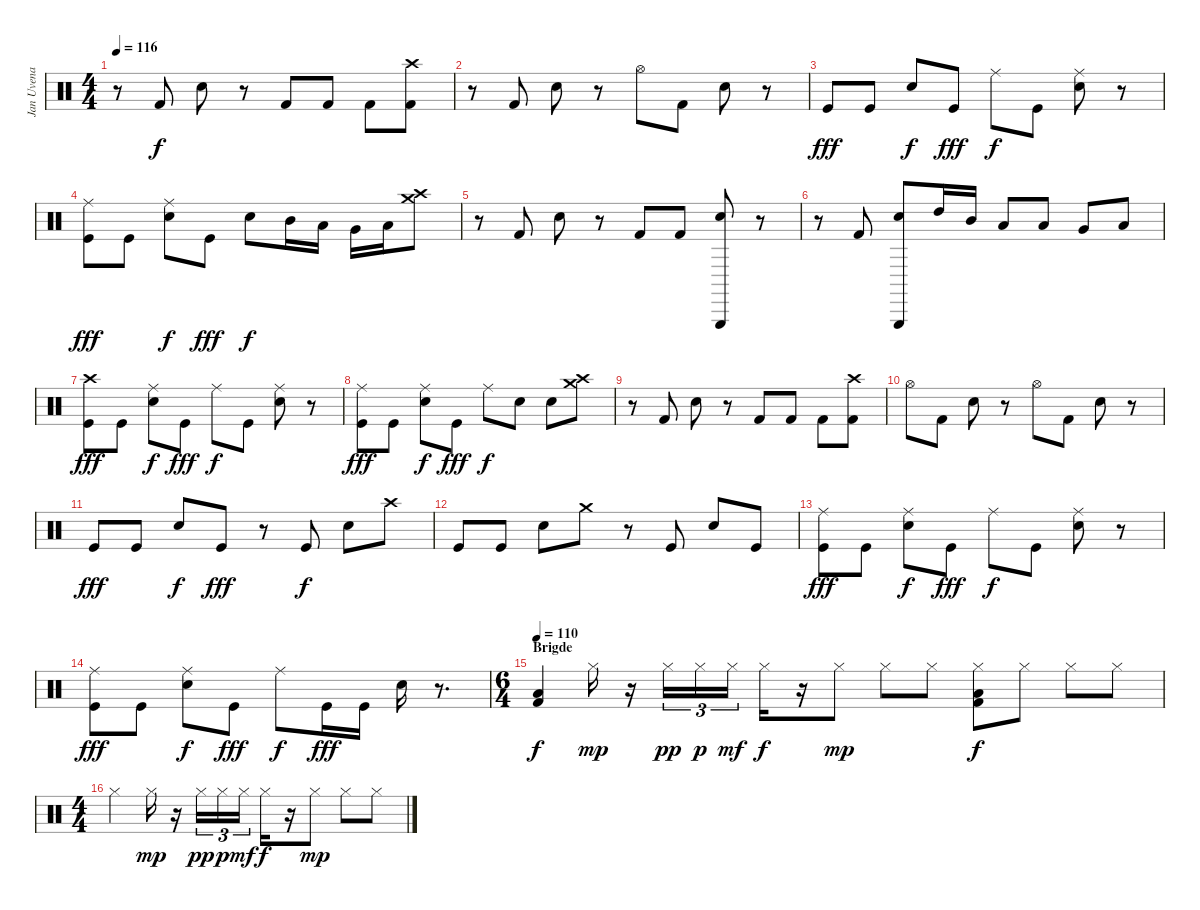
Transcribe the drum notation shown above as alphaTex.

\track ("Jan Uvena" "Jan Uvena") {instrument percussion}
\staff {score}
\articulation defaults
\ts (4 4)
\tempo 116
\clef neutral
\ks c
r.8{dy f} "Kick (hit) 2".8 "Snare (hit) 2".8 r.8 "Kick (hit) 2".8 "Kick (hit) 2".8 "Kick (hit) 2".8 ("Crash high (hit)" "Kick (hit) 2").8 |
r.8 "Kick (hit) 2".8 "Snare (hit) 2".8 r.8 "Hi-Hat (open)".8 "Kick (hit) 2".8 "Snare (hit) 2".8 r.8 |
"Kick (hit)".8{dy fff} "Kick (hit)".8 "Snare (hit) 2".8{dy f} "Kick (hit)".8{dy fff} "Ride (middle)".8{dy f} "Kick (hit)".8 ("Ride (middle)" "Snare (hit) 2").8 r.8 |
("Ride (middle)" "Kick (hit)").8{dy fff} "Kick (hit)".8 ("Ride (middle)" "Snare (hit) 2").8{dy f} "Kick (hit)".8{dy fff} "Snare (hit) 2".8{dy f} "Mid Tom (hit)".16 "Low Tom (hit)".16 "Very Low Tom (hit)".16 "Low Floor Tom (hit)".16 ("Crash medium (hit)" "Crash high (hit)").8 |
r.8 "Kick (hit) 2".8 "Snare (hit) 2".8 r.8 "Kick (hit) 2".8 "Kick (hit) 2".8 ("Triangle (hit)" "Snare (hit) 2").8 r.8 |
r.8 "Kick (hit) 2".8 ("Triangle (hit)" "Snare (hit) 2").8 "High Tom (hit)".16 "Mid Tom (hit)".16 "Low Tom (hit)".8 "Low Tom (hit)".8 "Very Low Tom (hit)".8 "Low Floor Tom (hit)".8 |
("Crash high (hit)" "Kick (hit)").8{dy fff} "Kick (hit)".8 ("Ride (middle)" "Snare (hit) 2").8{dy f} "Kick (hit)".8{dy fff} "Ride (middle)".8{dy f} "Kick (hit)".8 ("Ride (middle)" "Snare (hit) 2").8 r.8 |
("Ride (middle)" "Kick (hit)").8{dy fff} "Kick (hit)".8 ("Ride (middle)" "Snare (hit) 2").8{dy f} "Kick (hit)".8{dy fff} "Ride (middle)".8{dy f} "Snare (hit) 2".8 "Snare (hit) 2".8 ("Crash medium (hit)" "Crash high (hit)").8 |
r.8 "Kick (hit) 2".8 "Snare (hit) 2".8 r.8 "Kick (hit) 2".8 "Kick (hit) 2".8 "Kick (hit) 2".8 ("Crash high (hit)" "Kick (hit) 2").8 |
"Hi-Hat (open)".8 "Kick (hit) 2".8 "Snare (hit) 2".8 r.8 "Hi-Hat (open)".8 "Kick (hit) 2".8 "Snare (hit) 2".8 r.8 |
"Kick (hit)".8{dy fff} "Kick (hit)".8 "Snare (hit) 2".8{dy f} "Kick (hit)".8{dy fff} r.8 "Kick (hit)".8{dy f} "Snare (hit) 2".8 "Crash high (hit)".8 |
"Kick (hit)".8 "Kick (hit)".8 "Snare (hit) 2".8 "Crash medium (hit)".8 r.8 "Kick (hit)".8 "Snare (hit) 2".8 "Kick (hit)".8 |
("Ride (middle)" "Kick (hit)").8{dy fff} "Kick (hit)".8 ("Ride (middle)" "Snare (hit) 2").8{dy f} "Kick (hit)".8{dy fff} "Ride (middle)".8{dy f} "Kick (hit)".8 ("Ride (middle)" "Snare (hit) 2").8 r.8 |
("Ride (middle)" "Kick (hit)").8{dy fff} "Kick (hit)".8 ("Ride (middle)" "Snare (hit) 2").8{dy f} "Kick (hit)".8{dy fff} "Ride (middle)".8{dy f} "Kick (hit)".16{dy fff} "Kick (hit)".16 "Snare (hit) 2".16 r.8{d} |
\ts (6 4)
\section ("" "Brigde")
\tempo 110
("Kick (hit) 2" "Low Floor Tom (hit)").4{dy f} "Hi-Hat (closed)".16{dy mp} r.16 "Hi-Hat (closed)".16{tu (3 2) dy pp} "Hi-Hat (closed)".16{tu (3 2) dy p} "Hi-Hat (closed)".16{tu (3 2) dy mf} "Hi-Hat (closed)".16{dy f} r.16 "Hi-Hat (closed)".8{dy mp} "Hi-Hat (closed)".8 "Hi-Hat (closed)".8 ("Kick (hit) 2" "Hi-Hat (closed)" "Low Floor Tom (hit)").8{dy f} "Hi-Hat (closed)".8 "Hi-Hat (closed)".8 "Hi-Hat (closed)".8 |
\ts (4 4)
"Hi-Hat (closed)".4 "Hi-Hat (closed)".16{dy mp} r.16 "Hi-Hat (closed)".16{tu (3 2) dy pp} "Hi-Hat (closed)".16{tu (3 2) dy p} "Hi-Hat (closed)".16{tu (3 2) dy mf} "Hi-Hat (closed)".16{dy f} r.16 "Hi-Hat (closed)".8{dy mp} "Hi-Hat (closed)".8 "Hi-Hat (closed)".8
